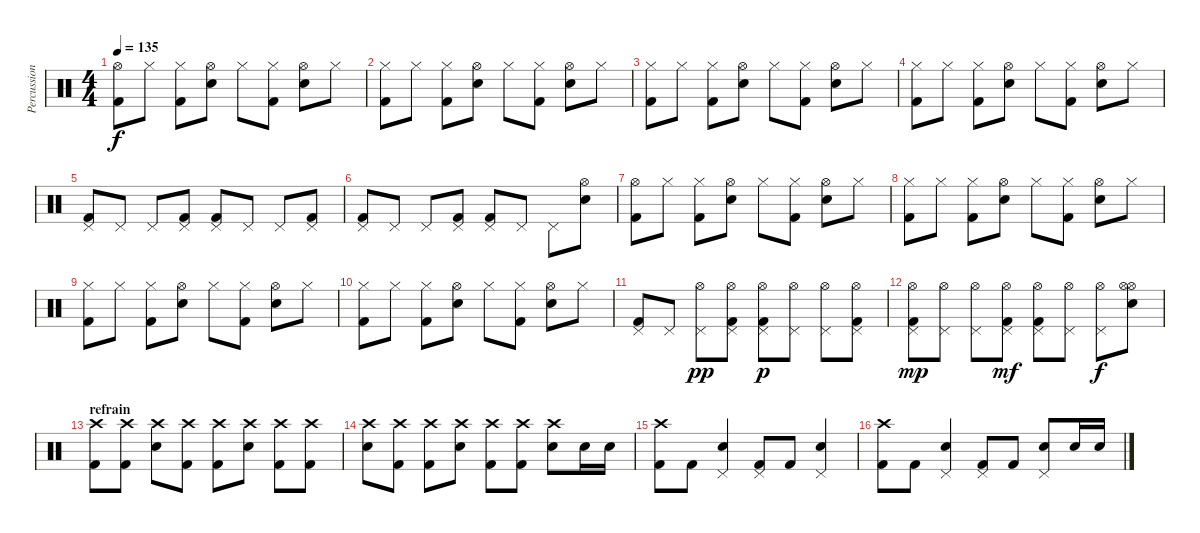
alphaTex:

\track ("Percussions" "Percussion") {instrument percussion}
\staff {score}
\articulation defaults
\ts (4 4)
\tempo 135
\clef neutral
\ks c
("Hi-Hat (open)" "Kick (hit) 2").8{dy f} "Hi-Hat (closed)".8 ("Hi-Hat (closed)" "Kick (hit) 2").8 ("Hi-Hat (open)" "Snare (hit) 2").8 "Hi-Hat (closed)".8 ("Hi-Hat (closed)" "Kick (hit) 2").8 ("Hi-Hat (open)" "Snare (hit) 2").8 "Hi-Hat (closed)".8 |
("Hi-Hat (closed)" "Kick (hit) 2").8 "Hi-Hat (closed)".8 ("Hi-Hat (closed)" "Kick (hit) 2").8 ("Hi-Hat (open)" "Snare (hit) 2").8 "Hi-Hat (closed)".8 ("Hi-Hat (closed)" "Kick (hit) 2").8 ("Hi-Hat (open)" "Snare (hit) 2").8 "Hi-Hat (closed)".8 |
("Hi-Hat (closed)" "Kick (hit) 2").8 "Hi-Hat (closed)".8 ("Hi-Hat (closed)" "Kick (hit) 2").8 ("Hi-Hat (open)" "Snare (hit) 2").8 "Hi-Hat (closed)".8 ("Hi-Hat (closed)" "Kick (hit) 2").8 ("Hi-Hat (open)" "Snare (hit) 2").8 "Hi-Hat (closed)".8 |
("Hi-Hat (closed)" "Kick (hit) 2").8 "Hi-Hat (closed)".8 ("Hi-Hat (closed)" "Kick (hit) 2").8 ("Hi-Hat (open)" "Snare (hit) 2").8 "Hi-Hat (closed)".8 ("Hi-Hat (closed)" "Kick (hit) 2").8 ("Hi-Hat (open)" "Snare (hit) 2").8 "Hi-Hat (closed)".8 |
("Pedal Hi-Hat (hit)" "Kick (hit) 2").8 "Pedal Hi-Hat (hit)".8 "Pedal Hi-Hat (hit)".8 ("Pedal Hi-Hat (hit)" "Kick (hit) 2").8 ("Pedal Hi-Hat (hit)" "Kick (hit) 2").8 "Pedal Hi-Hat (hit)".8 "Pedal Hi-Hat (hit)".8 ("Pedal Hi-Hat (hit)" "Kick (hit) 2").8 |
("Pedal Hi-Hat (hit)" "Kick (hit) 2").8 "Pedal Hi-Hat (hit)".8 "Pedal Hi-Hat (hit)".8 ("Pedal Hi-Hat (hit)" "Kick (hit) 2").8 ("Pedal Hi-Hat (hit)" "Kick (hit) 2").8 "Pedal Hi-Hat (hit)".8 "Pedal Hi-Hat (hit)".8 ("Hi-Hat (open)" "Snare (hit) 2").8 |
("Hi-Hat (open)" "Kick (hit) 2").8 "Hi-Hat (closed)".8 ("Hi-Hat (closed)" "Kick (hit) 2").8 ("Hi-Hat (open)" "Snare (hit) 2").8 "Hi-Hat (closed)".8 ("Hi-Hat (closed)" "Kick (hit) 2").8 ("Hi-Hat (open)" "Snare (hit) 2").8 "Hi-Hat (closed)".8 |
("Hi-Hat (closed)" "Kick (hit) 2").8 "Hi-Hat (closed)".8 ("Hi-Hat (closed)" "Kick (hit) 2").8 ("Hi-Hat (open)" "Snare (hit) 2").8 "Hi-Hat (closed)".8 ("Hi-Hat (closed)" "Kick (hit) 2").8 ("Hi-Hat (open)" "Snare (hit) 2").8 "Hi-Hat (closed)".8 |
("Hi-Hat (closed)" "Kick (hit) 2").8 "Hi-Hat (closed)".8 ("Hi-Hat (closed)" "Kick (hit) 2").8 ("Hi-Hat (open)" "Snare (hit) 2").8 "Hi-Hat (closed)".8 ("Hi-Hat (closed)" "Kick (hit) 2").8 ("Hi-Hat (open)" "Snare (hit) 2").8 "Hi-Hat (closed)".8 |
("Hi-Hat (closed)" "Kick (hit) 2").8 "Hi-Hat (closed)".8 ("Hi-Hat (closed)" "Kick (hit) 2").8 ("Hi-Hat (open)" "Snare (hit) 2").8 "Hi-Hat (closed)".8 ("Hi-Hat (closed)" "Kick (hit) 2").8 ("Hi-Hat (open)" "Snare (hit) 2").8 "Hi-Hat (closed)".8 |
("Pedal Hi-Hat (hit)" "Kick (hit) 2").8 "Pedal Hi-Hat (hit)".8 ("Hi-Hat (open)" "Pedal Hi-Hat (hit)").8{dy pp} ("Hi-Hat (open)" "Pedal Hi-Hat (hit)" "Kick (hit) 2").8 ("Hi-Hat (open)" "Pedal Hi-Hat (hit)" "Kick (hit) 2").8{dy p} ("Hi-Hat (open)" "Pedal Hi-Hat (hit)").8 ("Hi-Hat (open)" "Pedal Hi-Hat (hit)").8 ("Hi-Hat (open)" "Pedal Hi-Hat (hit)" "Kick (hit) 2").8 |
("Hi-Hat (open)" "Pedal Hi-Hat (hit)" "Kick (hit) 2").8{dy mp} ("Hi-Hat (open)" "Pedal Hi-Hat (hit)").8 ("Hi-Hat (open)" "Pedal Hi-Hat (hit)").8 ("Hi-Hat (open)" "Pedal Hi-Hat (hit)" "Kick (hit) 2").8{dy mf} ("Hi-Hat (open)" "Pedal Hi-Hat (hit)" "Kick (hit) 2").8 ("Hi-Hat (open)" "Pedal Hi-Hat (hit)").8 ("Hi-Hat (open)" "Pedal Hi-Hat (hit)").8{dy f} ("Hi-Hat (open)" "Hi-Hat (open)" "Snare (hit) 2").8 |
\section ("" "refrain")
("Crash high (hit)" "Kick (hit) 2").8 ("Crash high (hit)" "Kick (hit) 2").8 ("Crash high (hit)" "Snare (hit) 2").8 ("Crash high (hit)" "Kick (hit) 2").8 ("Crash high (hit)" "Kick (hit) 2").8 ("Crash high (hit)" "Snare (hit) 2").8 ("Crash high (hit)" "Kick (hit) 2").8 ("Crash high (hit)" "Kick (hit) 2").8 |
("Crash high (hit)" "Snare (hit) 2").8 ("Crash high (hit)" "Kick (hit) 2").8 ("Crash high (hit)" "Kick (hit) 2").8 ("Crash high (hit)" "Snare (hit) 2").8 ("Crash high (hit)" "Kick (hit) 2").8 ("Crash high (hit)" "Kick (hit) 2").8 ("Crash high (hit)" "Snare (hit) 2").8 "Snare (hit) 2".16 "Snare (hit) 2".16 |
("Crash high (hit)" "Kick (hit) 2").8 "Kick (hit) 2".8 ("Pedal Hi-Hat (hit)" "Snare (hit) 2").4 ("Pedal Hi-Hat (hit)" "Kick (hit) 2").8 "Kick (hit) 2".8 ("Pedal Hi-Hat (hit)" "Snare (hit) 2").4 |
("Crash high (hit)" "Kick (hit) 2").8 "Kick (hit) 2".8 ("Pedal Hi-Hat (hit)" "Snare (hit) 2").4 ("Pedal Hi-Hat (hit)" "Kick (hit) 2").8 "Kick (hit) 2".8 ("Pedal Hi-Hat (hit)" "Snare (hit) 2").8 "Snare (hit) 2".16 "Snare (hit) 2".16
